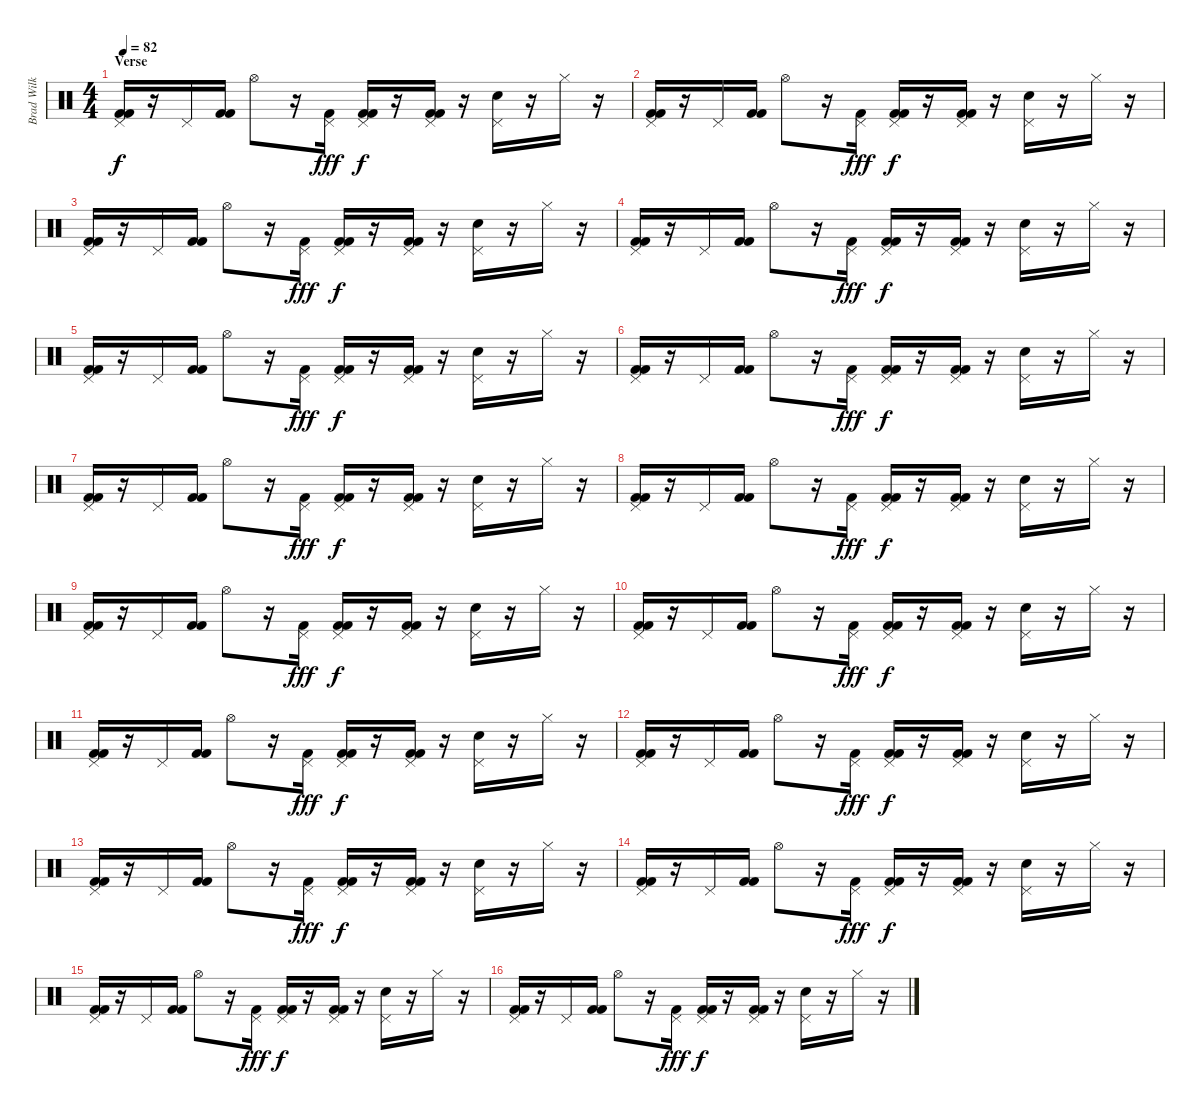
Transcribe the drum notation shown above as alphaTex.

\track ("Brad Wilk" "Brad Wilk") {instrument percussion}
\staff {score}
\articulation defaults
\ts (4 4)
\section ("" "Verse")
\tempo 82
\clef neutral
\ks c
("Pedal Hi-Hat (hit)" "Kick (hit) 2" "Kick (hit) 2").16{dy f} r.16 "Pedal Hi-Hat (hit)".16 ("Kick (hit) 2" "Kick (hit) 2").16 "Hi-Hat (open)".8 r.16 ("Pedal Hi-Hat (hit)" "Kick (hit) 2").16{dy fff} ("Pedal Hi-Hat (hit)" "Kick (hit) 2" "Kick (hit) 2").16{dy f} r.16 ("Pedal Hi-Hat (hit)" "Kick (hit) 2" "Kick (hit) 2").16 r.16 ("Pedal Hi-Hat (hit)" "Snare (hit) 2").16 r.16 "Hi-Hat (closed)".16 r.16 |
("Pedal Hi-Hat (hit)" "Kick (hit) 2" "Kick (hit) 2").16 r.16 "Pedal Hi-Hat (hit)".16 ("Kick (hit) 2" "Kick (hit) 2").16 "Hi-Hat (open)".8 r.16 ("Pedal Hi-Hat (hit)" "Kick (hit) 2").16{dy fff} ("Pedal Hi-Hat (hit)" "Kick (hit) 2" "Kick (hit) 2").16{dy f} r.16 ("Pedal Hi-Hat (hit)" "Kick (hit) 2" "Kick (hit) 2").16 r.16 ("Pedal Hi-Hat (hit)" "Snare (hit) 2").16 r.16 "Hi-Hat (closed)".16 r.16 |
("Pedal Hi-Hat (hit)" "Kick (hit) 2" "Kick (hit) 2").16 r.16 "Pedal Hi-Hat (hit)".16 ("Kick (hit) 2" "Kick (hit) 2").16 "Hi-Hat (open)".8 r.16 ("Pedal Hi-Hat (hit)" "Kick (hit) 2").16{dy fff} ("Pedal Hi-Hat (hit)" "Kick (hit) 2" "Kick (hit) 2").16{dy f} r.16 ("Pedal Hi-Hat (hit)" "Kick (hit) 2" "Kick (hit) 2").16 r.16 ("Pedal Hi-Hat (hit)" "Snare (hit) 2").16 r.16 "Hi-Hat (closed)".16 r.16 |
("Pedal Hi-Hat (hit)" "Kick (hit) 2" "Kick (hit) 2").16 r.16 "Pedal Hi-Hat (hit)".16 ("Kick (hit) 2" "Kick (hit) 2").16 "Hi-Hat (open)".8 r.16 ("Pedal Hi-Hat (hit)" "Kick (hit) 2").16{dy fff} ("Pedal Hi-Hat (hit)" "Kick (hit) 2" "Kick (hit) 2").16{dy f} r.16 ("Pedal Hi-Hat (hit)" "Kick (hit) 2" "Kick (hit) 2").16 r.16 ("Pedal Hi-Hat (hit)" "Snare (hit) 2").16 r.16 "Hi-Hat (closed)".16 r.16 |
("Pedal Hi-Hat (hit)" "Kick (hit) 2" "Kick (hit) 2").16 r.16 "Pedal Hi-Hat (hit)".16 ("Kick (hit) 2" "Kick (hit) 2").16 "Hi-Hat (open)".8 r.16 ("Pedal Hi-Hat (hit)" "Kick (hit) 2").16{dy fff} ("Pedal Hi-Hat (hit)" "Kick (hit) 2" "Kick (hit) 2").16{dy f} r.16 ("Pedal Hi-Hat (hit)" "Kick (hit) 2" "Kick (hit) 2").16 r.16 ("Pedal Hi-Hat (hit)" "Snare (hit) 2").16 r.16 "Hi-Hat (closed)".16 r.16 |
("Pedal Hi-Hat (hit)" "Kick (hit) 2" "Kick (hit) 2").16 r.16 "Pedal Hi-Hat (hit)".16 ("Kick (hit) 2" "Kick (hit) 2").16 "Hi-Hat (open)".8 r.16 ("Pedal Hi-Hat (hit)" "Kick (hit) 2").16{dy fff} ("Pedal Hi-Hat (hit)" "Kick (hit) 2" "Kick (hit) 2").16{dy f} r.16 ("Pedal Hi-Hat (hit)" "Kick (hit) 2" "Kick (hit) 2").16 r.16 ("Pedal Hi-Hat (hit)" "Snare (hit) 2").16 r.16 "Hi-Hat (closed)".16 r.16 |
("Pedal Hi-Hat (hit)" "Kick (hit) 2" "Kick (hit) 2").16 r.16 "Pedal Hi-Hat (hit)".16 ("Kick (hit) 2" "Kick (hit) 2").16 "Hi-Hat (open)".8 r.16 ("Pedal Hi-Hat (hit)" "Kick (hit) 2").16{dy fff} ("Pedal Hi-Hat (hit)" "Kick (hit) 2" "Kick (hit) 2").16{dy f} r.16 ("Pedal Hi-Hat (hit)" "Kick (hit) 2" "Kick (hit) 2").16 r.16 ("Pedal Hi-Hat (hit)" "Snare (hit) 2").16 r.16 "Hi-Hat (closed)".16 r.16 |
("Pedal Hi-Hat (hit)" "Kick (hit) 2" "Kick (hit) 2").16 r.16 "Pedal Hi-Hat (hit)".16 ("Kick (hit) 2" "Kick (hit) 2").16 "Hi-Hat (open)".8 r.16 ("Pedal Hi-Hat (hit)" "Kick (hit) 2").16{dy fff} ("Pedal Hi-Hat (hit)" "Kick (hit) 2" "Kick (hit) 2").16{dy f} r.16 ("Pedal Hi-Hat (hit)" "Kick (hit) 2" "Kick (hit) 2").16 r.16 ("Pedal Hi-Hat (hit)" "Snare (hit) 2").16 r.16 "Hi-Hat (closed)".16 r.16 |
("Pedal Hi-Hat (hit)" "Kick (hit) 2" "Kick (hit) 2").16 r.16 "Pedal Hi-Hat (hit)".16 ("Kick (hit) 2" "Kick (hit) 2").16 "Hi-Hat (open)".8 r.16 ("Pedal Hi-Hat (hit)" "Kick (hit) 2").16{dy fff} ("Pedal Hi-Hat (hit)" "Kick (hit) 2" "Kick (hit) 2").16{dy f} r.16 ("Pedal Hi-Hat (hit)" "Kick (hit) 2" "Kick (hit) 2").16 r.16 ("Pedal Hi-Hat (hit)" "Snare (hit) 2").16 r.16 "Hi-Hat (closed)".16 r.16 |
("Pedal Hi-Hat (hit)" "Kick (hit) 2" "Kick (hit) 2").16 r.16 "Pedal Hi-Hat (hit)".16 ("Kick (hit) 2" "Kick (hit) 2").16 "Hi-Hat (open)".8 r.16 ("Pedal Hi-Hat (hit)" "Kick (hit) 2").16{dy fff} ("Pedal Hi-Hat (hit)" "Kick (hit) 2" "Kick (hit) 2").16{dy f} r.16 ("Pedal Hi-Hat (hit)" "Kick (hit) 2" "Kick (hit) 2").16 r.16 ("Pedal Hi-Hat (hit)" "Snare (hit) 2").16 r.16 "Hi-Hat (closed)".16 r.16 |
("Pedal Hi-Hat (hit)" "Kick (hit) 2" "Kick (hit) 2").16 r.16 "Pedal Hi-Hat (hit)".16 ("Kick (hit) 2" "Kick (hit) 2").16 "Hi-Hat (open)".8 r.16 ("Pedal Hi-Hat (hit)" "Kick (hit) 2").16{dy fff} ("Pedal Hi-Hat (hit)" "Kick (hit) 2" "Kick (hit) 2").16{dy f} r.16 ("Pedal Hi-Hat (hit)" "Kick (hit) 2" "Kick (hit) 2").16 r.16 ("Pedal Hi-Hat (hit)" "Snare (hit) 2").16 r.16 "Hi-Hat (closed)".16 r.16 |
("Pedal Hi-Hat (hit)" "Kick (hit) 2" "Kick (hit) 2").16 r.16 "Pedal Hi-Hat (hit)".16 ("Kick (hit) 2" "Kick (hit) 2").16 "Hi-Hat (open)".8 r.16 ("Pedal Hi-Hat (hit)" "Kick (hit) 2").16{dy fff} ("Pedal Hi-Hat (hit)" "Kick (hit) 2" "Kick (hit) 2").16{dy f} r.16 ("Pedal Hi-Hat (hit)" "Kick (hit) 2" "Kick (hit) 2").16 r.16 ("Pedal Hi-Hat (hit)" "Snare (hit) 2").16 r.16 "Hi-Hat (closed)".16 r.16 |
("Pedal Hi-Hat (hit)" "Kick (hit) 2" "Kick (hit) 2").16 r.16 "Pedal Hi-Hat (hit)".16 ("Kick (hit) 2" "Kick (hit) 2").16 "Hi-Hat (open)".8 r.16 ("Pedal Hi-Hat (hit)" "Kick (hit) 2").16{dy fff} ("Pedal Hi-Hat (hit)" "Kick (hit) 2" "Kick (hit) 2").16{dy f} r.16 ("Pedal Hi-Hat (hit)" "Kick (hit) 2" "Kick (hit) 2").16 r.16 ("Pedal Hi-Hat (hit)" "Snare (hit) 2").16 r.16 "Hi-Hat (closed)".16 r.16 |
("Pedal Hi-Hat (hit)" "Kick (hit) 2" "Kick (hit) 2").16 r.16 "Pedal Hi-Hat (hit)".16 ("Kick (hit) 2" "Kick (hit) 2").16 "Hi-Hat (open)".8 r.16 ("Pedal Hi-Hat (hit)" "Kick (hit) 2").16{dy fff} ("Pedal Hi-Hat (hit)" "Kick (hit) 2" "Kick (hit) 2").16{dy f} r.16 ("Pedal Hi-Hat (hit)" "Kick (hit) 2" "Kick (hit) 2").16 r.16 ("Pedal Hi-Hat (hit)" "Snare (hit) 2").16 r.16 "Hi-Hat (closed)".16 r.16 |
("Pedal Hi-Hat (hit)" "Kick (hit) 2" "Kick (hit) 2").16 r.16 "Pedal Hi-Hat (hit)".16 ("Kick (hit) 2" "Kick (hit) 2").16 "Hi-Hat (open)".8 r.16 ("Pedal Hi-Hat (hit)" "Kick (hit) 2").16{dy fff} ("Pedal Hi-Hat (hit)" "Kick (hit) 2" "Kick (hit) 2").16{dy f} r.16 ("Pedal Hi-Hat (hit)" "Kick (hit) 2" "Kick (hit) 2").16 r.16 ("Pedal Hi-Hat (hit)" "Snare (hit) 2").16 r.16 "Hi-Hat (closed)".16 r.16 |
("Pedal Hi-Hat (hit)" "Kick (hit) 2" "Kick (hit) 2").16 r.16 "Pedal Hi-Hat (hit)".16 ("Kick (hit) 2" "Kick (hit) 2").16 "Hi-Hat (open)".8 r.16 ("Pedal Hi-Hat (hit)" "Kick (hit) 2").16{dy fff} ("Pedal Hi-Hat (hit)" "Kick (hit) 2" "Kick (hit) 2").16{dy f} r.16 ("Pedal Hi-Hat (hit)" "Kick (hit) 2" "Kick (hit) 2").16 r.16 ("Pedal Hi-Hat (hit)" "Snare (hit) 2").16 r.16 "Hi-Hat (closed)".16 r.16
